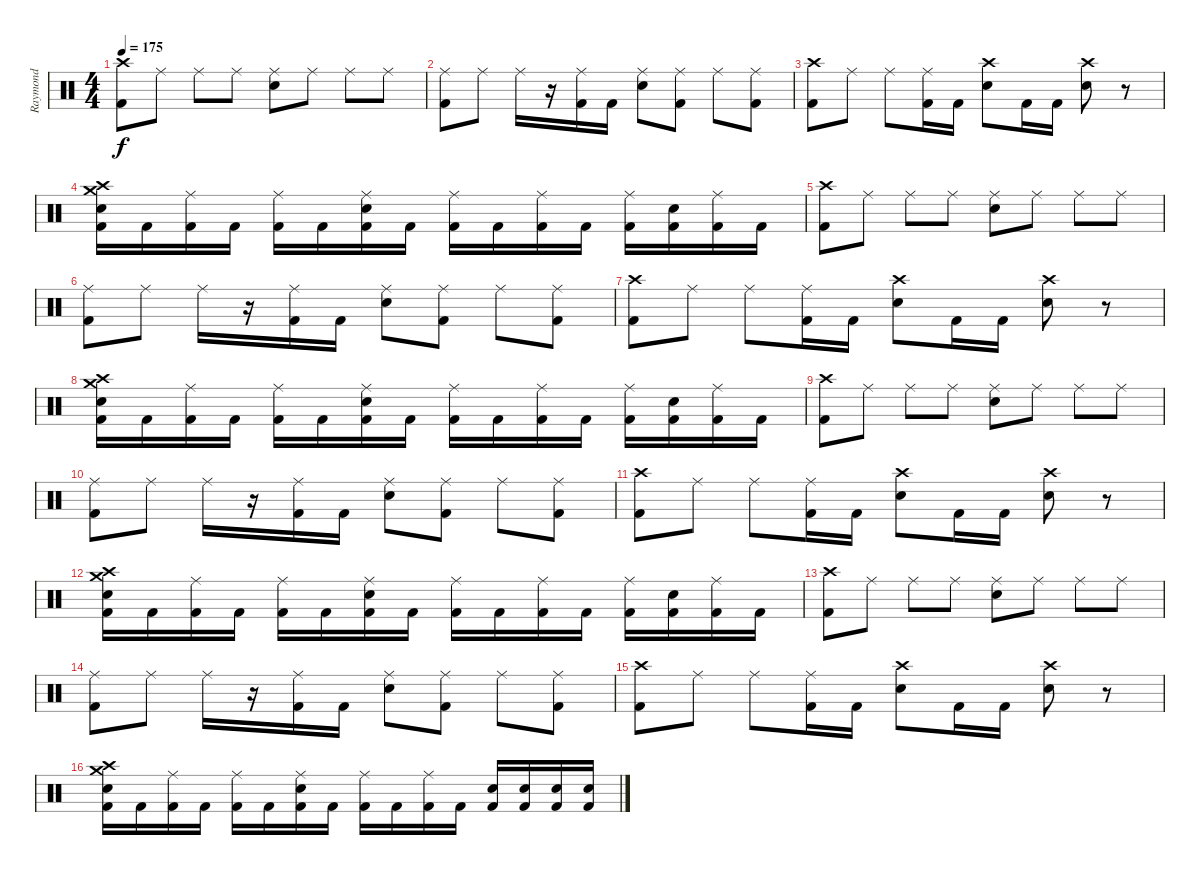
\track ("Raymond" "Raymond") {instrument percussion}
\staff {score}
\articulation defaults
\ts (4 4)
\tempo 175
\clef neutral
\ks c
("Crash high (hit)" "Kick (hit) 2").8{dy f} "Ride (middle)".8 "Ride (middle)".8 "Ride (middle)".8 ("Ride (middle)" "Electric Snare (hit)").8 "Ride (middle)".8 "Ride (middle)".8 "Ride (middle)".8 |
("Ride (middle)" "Kick (hit) 2").8 "Ride (middle)".8 "Ride (middle)".16 r.16 ("Ride (middle)" "Kick (hit) 2").16 "Kick (hit) 2".16 ("Ride (middle)" "Electric Snare (hit)").8 ("Ride (middle)" "Kick (hit) 2").8 "Ride (middle)".8 ("Ride (middle)" "Kick (hit) 2").8 |
("Crash high (hit)" "Kick (hit) 2").8 "Ride (middle)".8 "Ride (middle)".8 ("Ride (middle)" "Kick (hit) 2").16 "Kick (hit) 2".16 ("Crash high (hit)" "Electric Snare (hit)").8 "Kick (hit) 2".16 "Kick (hit) 2".16 ("Crash high (hit)" "Electric Snare (hit)").8 r.8 |
("Crash high (hit)" "Crash medium (hit)" "Electric Snare (hit)" "Kick (hit) 2").16 "Kick (hit) 2".16 ("Ride (middle)" "Kick (hit) 2").16 "Kick (hit) 2".16 ("Ride (middle)" "Kick (hit) 2").16 "Kick (hit) 2".16 ("Ride (middle)" "Electric Snare (hit)" "Kick (hit) 2").16 "Kick (hit) 2".16 ("Ride (middle)" "Kick (hit) 2").16 "Kick (hit) 2".16 ("Ride (middle)" "Kick (hit) 2").16 "Kick (hit) 2".16 ("Ride (middle)" "Kick (hit) 2").16 ("Electric Snare (hit)" "Kick (hit) 2").16 ("Ride (middle)" "Kick (hit) 2").16 "Kick (hit) 2".16 |
("Crash high (hit)" "Kick (hit) 2").8 "Ride (middle)".8 "Ride (middle)".8 "Ride (middle)".8 ("Ride (middle)" "Electric Snare (hit)").8 "Ride (middle)".8 "Ride (middle)".8 "Ride (middle)".8 |
("Ride (middle)" "Kick (hit) 2").8 "Ride (middle)".8 "Ride (middle)".16 r.16 ("Ride (middle)" "Kick (hit) 2").16 "Kick (hit) 2".16 ("Ride (middle)" "Electric Snare (hit)").8 ("Ride (middle)" "Kick (hit) 2").8 "Ride (middle)".8 ("Ride (middle)" "Kick (hit) 2").8 |
("Crash high (hit)" "Kick (hit) 2").8 "Ride (middle)".8 "Ride (middle)".8 ("Ride (middle)" "Kick (hit) 2").16 "Kick (hit) 2".16 ("Crash high (hit)" "Electric Snare (hit)").8 "Kick (hit) 2".16 "Kick (hit) 2".16 ("Crash high (hit)" "Electric Snare (hit)").8 r.8 |
("Crash high (hit)" "Crash medium (hit)" "Electric Snare (hit)" "Kick (hit) 2").16 "Kick (hit) 2".16 ("Ride (middle)" "Kick (hit) 2").16 "Kick (hit) 2".16 ("Ride (middle)" "Kick (hit) 2").16 "Kick (hit) 2".16 ("Ride (middle)" "Electric Snare (hit)" "Kick (hit) 2").16 "Kick (hit) 2".16 ("Ride (middle)" "Kick (hit) 2").16 "Kick (hit) 2".16 ("Ride (middle)" "Kick (hit) 2").16 "Kick (hit) 2".16 ("Ride (middle)" "Kick (hit) 2").16 ("Electric Snare (hit)" "Kick (hit) 2").16 ("Ride (middle)" "Kick (hit) 2").16 "Kick (hit) 2".16 |
("Crash high (hit)" "Kick (hit) 2").8 "Ride (middle)".8 "Ride (middle)".8 "Ride (middle)".8 ("Ride (middle)" "Electric Snare (hit)").8 "Ride (middle)".8 "Ride (middle)".8 "Ride (middle)".8 |
("Ride (middle)" "Kick (hit) 2").8 "Ride (middle)".8 "Ride (middle)".16 r.16 ("Ride (middle)" "Kick (hit) 2").16 "Kick (hit) 2".16 ("Ride (middle)" "Electric Snare (hit)").8 ("Ride (middle)" "Kick (hit) 2").8 "Ride (middle)".8 ("Ride (middle)" "Kick (hit) 2").8 |
("Crash high (hit)" "Kick (hit) 2").8 "Ride (middle)".8 "Ride (middle)".8 ("Ride (middle)" "Kick (hit) 2").16 "Kick (hit) 2".16 ("Crash high (hit)" "Electric Snare (hit)").8 "Kick (hit) 2".16 "Kick (hit) 2".16 ("Crash high (hit)" "Electric Snare (hit)").8 r.8 |
("Crash high (hit)" "Crash medium (hit)" "Electric Snare (hit)" "Kick (hit) 2").16 "Kick (hit) 2".16 ("Ride (middle)" "Kick (hit) 2").16 "Kick (hit) 2".16 ("Ride (middle)" "Kick (hit) 2").16 "Kick (hit) 2".16 ("Ride (middle)" "Electric Snare (hit)" "Kick (hit) 2").16 "Kick (hit) 2".16 ("Ride (middle)" "Kick (hit) 2").16 "Kick (hit) 2".16 ("Ride (middle)" "Kick (hit) 2").16 "Kick (hit) 2".16 ("Ride (middle)" "Kick (hit) 2").16 ("Electric Snare (hit)" "Kick (hit) 2").16 ("Ride (middle)" "Kick (hit) 2").16 "Kick (hit) 2".16 |
("Crash high (hit)" "Kick (hit) 2").8 "Ride (middle)".8 "Ride (middle)".8 "Ride (middle)".8 ("Ride (middle)" "Electric Snare (hit)").8 "Ride (middle)".8 "Ride (middle)".8 "Ride (middle)".8 |
("Ride (middle)" "Kick (hit) 2").8 "Ride (middle)".8 "Ride (middle)".16 r.16 ("Ride (middle)" "Kick (hit) 2").16 "Kick (hit) 2".16 ("Ride (middle)" "Electric Snare (hit)").8 ("Ride (middle)" "Kick (hit) 2").8 "Ride (middle)".8 ("Ride (middle)" "Kick (hit) 2").8 |
("Crash high (hit)" "Kick (hit) 2").8 "Ride (middle)".8 "Ride (middle)".8 ("Ride (middle)" "Kick (hit) 2").16 "Kick (hit) 2".16 ("Crash high (hit)" "Electric Snare (hit)").8 "Kick (hit) 2".16 "Kick (hit) 2".16 ("Crash high (hit)" "Electric Snare (hit)").8 r.8 |
("Crash high (hit)" "Crash medium (hit)" "Electric Snare (hit)" "Kick (hit) 2").16 "Kick (hit) 2".16 ("Ride (middle)" "Kick (hit) 2").16 "Kick (hit) 2".16 ("Ride (middle)" "Kick (hit) 2").16 "Kick (hit) 2".16 ("Ride (middle)" "Electric Snare (hit)" "Kick (hit) 2").16 "Kick (hit) 2".16 ("Ride (middle)" "Kick (hit) 2").16 "Kick (hit) 2".16 ("Ride (middle)" "Kick (hit) 2").16 "Kick (hit) 2".16 ("Electric Snare (hit)" "Kick (hit) 2").16 ("Electric Snare (hit)" "Kick (hit) 2").16 ("Electric Snare (hit)" "Kick (hit) 2").16 ("Electric Snare (hit)" "Kick (hit) 2").16
